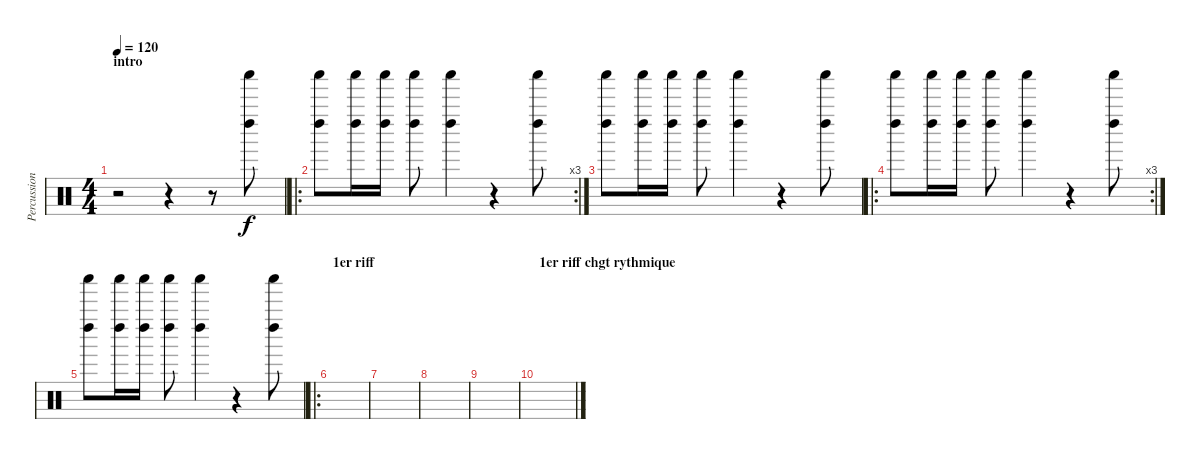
\track ("Percussions" "Percussion") {instrument percussion}
\staff {score}
\articulation defaults
\ts (4 4)
\section ("" "intro")
\tempo 120
\clef neutral
\ks c
r.2{dy f} r.4 r.8 ("Shaker (hit)" "Left Maraca (hit)").8 |
\ro
\rc 3
("Shaker (hit)" "Left Maraca (hit)").8 ("Shaker (hit)" "Left Maraca (hit)").16 ("Shaker (hit)" "Left Maraca (hit)").16 ("Shaker (hit)" "Left Maraca (hit)").8 ("Shaker (hit)" "Left Maraca (hit)").4 r.4 ("Shaker (hit)" "Left Maraca (hit)").8 |
("Shaker (hit)" "Left Maraca (hit)").8 ("Shaker (hit)" "Left Maraca (hit)").16 ("Shaker (hit)" "Left Maraca (hit)").16 ("Shaker (hit)" "Left Maraca (hit)").8 ("Shaker (hit)" "Left Maraca (hit)").4 r.4 ("Shaker (hit)" "Left Maraca (hit)").8 |
\ro
\rc 3
("Shaker (hit)" "Left Maraca (hit)").8 ("Shaker (hit)" "Left Maraca (hit)").16 ("Shaker (hit)" "Left Maraca (hit)").16 ("Shaker (hit)" "Left Maraca (hit)").8 ("Shaker (hit)" "Left Maraca (hit)").4 r.4 ("Shaker (hit)" "Left Maraca (hit)").8 |
("Shaker (hit)" "Left Maraca (hit)").8 ("Shaker (hit)" "Left Maraca (hit)").16 ("Shaker (hit)" "Left Maraca (hit)").16 ("Shaker (hit)" "Left Maraca (hit)").8 ("Shaker (hit)" "Left Maraca (hit)").4 r.4 ("Shaker (hit)" "Left Maraca (hit)").8 |
\ro
\section ("" "1er riff")
|
|
|
|
\section ("" "1er riff chgt rythmique")
